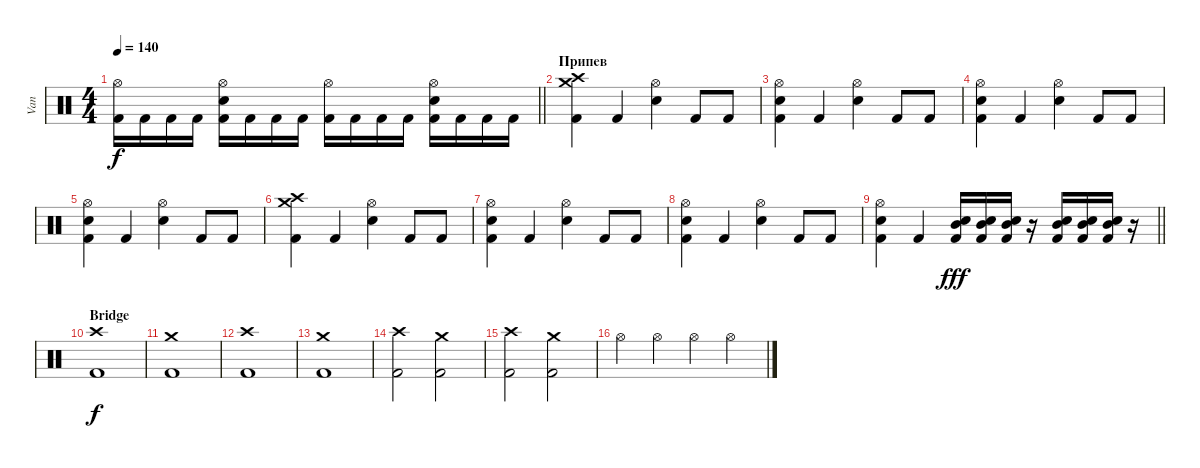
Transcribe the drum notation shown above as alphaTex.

\track ("Van" "Van") {instrument percussion}
\staff {score}
\articulation defaults
\ts (4 4)
\tempo 140
\clef neutral
\barLineRight lightlight
\ks c
("Hi-Hat (open)" "Kick (hit) 2").16{dy f} "Kick (hit) 2".16 "Kick (hit) 2".16 "Kick (hit) 2".16 ("Hi-Hat (open)" "Electric Snare (hit)" "Kick (hit) 2").16 "Kick (hit) 2".16 "Kick (hit) 2".16 "Kick (hit) 2".16 ("Hi-Hat (open)" "Kick (hit) 2").16 "Kick (hit) 2".16 "Kick (hit) 2".16 "Kick (hit) 2".16 ("Hi-Hat (open)" "Electric Snare (hit)" "Kick (hit) 2").16 "Kick (hit) 2".16 "Kick (hit) 2".16 "Kick (hit) 2".16 |
\section ("" "Припев")
("Crash medium (hit)" "Crash high (hit)" "Kick (hit) 2").4 "Kick (hit) 2".4 ("Hi-Hat (open)" "Electric Snare (hit)").4 "Kick (hit) 2".8 "Kick (hit) 2".8 |
("Hi-Hat (open)" "Electric Snare (hit)" "Kick (hit) 2").4 "Kick (hit) 2".4 ("Hi-Hat (open)" "Electric Snare (hit)").4 "Kick (hit) 2".8 "Kick (hit) 2".8 |
("Hi-Hat (open)" "Electric Snare (hit)" "Kick (hit) 2").4 "Kick (hit) 2".4 ("Hi-Hat (open)" "Electric Snare (hit)").4 "Kick (hit) 2".8 "Kick (hit) 2".8 |
("Hi-Hat (open)" "Electric Snare (hit)" "Kick (hit) 2").4 "Kick (hit) 2".4 ("Hi-Hat (open)" "Electric Snare (hit)").4 "Kick (hit) 2".8 "Kick (hit) 2".8 |
("Crash medium (hit)" "Crash high (hit)" "Kick (hit) 2").4 "Kick (hit) 2".4 ("Hi-Hat (open)" "Electric Snare (hit)").4 "Kick (hit) 2".8 "Kick (hit) 2".8 |
("Hi-Hat (open)" "Electric Snare (hit)" "Kick (hit) 2").4 "Kick (hit) 2".4 ("Hi-Hat (open)" "Electric Snare (hit)").4 "Kick (hit) 2".8 "Kick (hit) 2".8 |
("Hi-Hat (open)" "Electric Snare (hit)" "Kick (hit) 2").4 "Kick (hit) 2".4 ("Hi-Hat (open)" "Electric Snare (hit)").4 "Kick (hit) 2".8 "Kick (hit) 2".8 |
\barLineRight lightlight
("Hi-Hat (open)" "Electric Snare (hit)" "Kick (hit) 2").4 "Kick (hit) 2".4 ("Mid Tom (hit)" "Electric Snare (hit)" "Kick (hit) 2").16{dy fff} ("Mid Tom (hit)" "Electric Snare (hit)" "Kick (hit) 2").16 ("Mid Tom (hit)" "Electric Snare (hit)" "Kick (hit) 2").16 r.16 ("Mid Tom (hit)" "Electric Snare (hit)" "Kick (hit) 2").16 ("Mid Tom (hit)" "Electric Snare (hit)" "Kick (hit) 2").16 ("Mid Tom (hit)" "Electric Snare (hit)" "Kick (hit) 2").16 r.16 |
\section ("" "Bridge")
("Crash high (hit)" "Kick (hit) 2").1{dy f} |
("Crash medium (hit)" "Kick (hit) 2").1 |
("Crash high (hit)" "Kick (hit) 2").1 |
("Crash medium (hit)" "Kick (hit) 2").1 |
("Crash high (hit)" "Kick (hit) 2").2 ("Crash medium (hit)" "Kick (hit) 2").2 |
("Crash high (hit)" "Kick (hit) 2").2 ("Crash medium (hit)" "Kick (hit) 2").2 |
"Hi-Hat (open)".4 "Hi-Hat (open)".4 "Hi-Hat (open)".4 "Hi-Hat (open)".4
